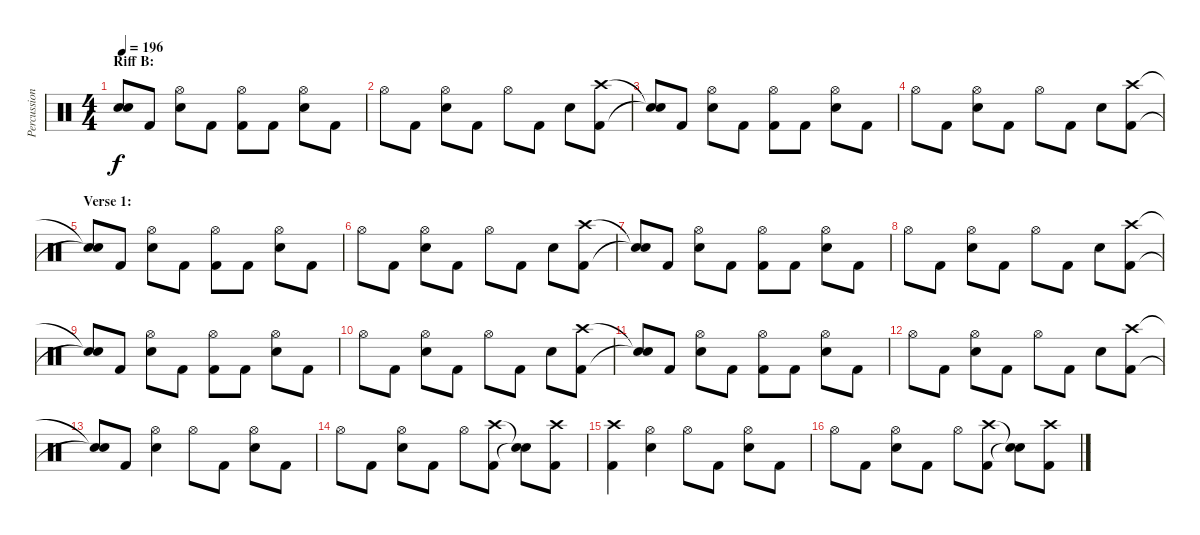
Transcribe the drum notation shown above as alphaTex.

\track ("Percussion" "Percussion") {instrument percussion}
\staff {score}
\articulation defaults
\ts (4 4)
\section ("" "Riff B:")
\tempo 196
\clef neutral
\ks c
("Snare (hit)"{t} "Snare (hit)"{t}).8{dy f} "Kick (hit) 2".8 ("Hi-Hat (open)" "Snare (hit) 2").8 "Kick (hit) 2".8 ("Hi-Hat (open)" "Kick (hit) 2").8 "Kick (hit) 2".8 ("Hi-Hat (open)" "Snare (hit) 2").8 "Kick (hit) 2".8 |
"Hi-Hat (open)".8 "Kick (hit) 2".8 ("Hi-Hat (open)" "Snare (hit) 2").8 "Kick (hit) 2".8 "Hi-Hat (open)".8 "Kick (hit) 2".8 "Snare (hit) 2".8 ("Crash high (hit)" "Kick (hit) 2").8 |
("Snare (hit)"{t} "Snare (hit)"{t}).8 "Kick (hit) 2".8 ("Hi-Hat (open)" "Snare (hit) 2").8 "Kick (hit) 2".8 ("Hi-Hat (open)" "Kick (hit) 2").8 "Kick (hit) 2".8 ("Hi-Hat (open)" "Snare (hit) 2").8 "Kick (hit) 2".8 |
"Hi-Hat (open)".8 "Kick (hit) 2".8 ("Hi-Hat (open)" "Snare (hit) 2").8 "Kick (hit) 2".8 "Hi-Hat (open)".8 "Kick (hit) 2".8 "Snare (hit) 2".8 ("Crash high (hit)" "Kick (hit) 2").8 |
\section ("" "Verse 1:")
("Snare (hit)"{t} "Snare (hit)"{t}).8 "Kick (hit) 2".8 ("Hi-Hat (open)" "Snare (hit) 2").8 "Kick (hit) 2".8 ("Hi-Hat (open)" "Kick (hit) 2").8 "Kick (hit) 2".8 ("Hi-Hat (open)" "Snare (hit) 2").8 "Kick (hit) 2".8 |
"Hi-Hat (open)".8 "Kick (hit) 2".8 ("Hi-Hat (open)" "Snare (hit) 2").8 "Kick (hit) 2".8 "Hi-Hat (open)".8 "Kick (hit) 2".8 "Snare (hit) 2".8 ("Crash high (hit)" "Kick (hit) 2").8 |
("Snare (hit)"{t} "Snare (hit)"{t}).8 "Kick (hit) 2".8 ("Hi-Hat (open)" "Snare (hit) 2").8 "Kick (hit) 2".8 ("Hi-Hat (open)" "Kick (hit) 2").8 "Kick (hit) 2".8 ("Hi-Hat (open)" "Snare (hit) 2").8 "Kick (hit) 2".8 |
"Hi-Hat (open)".8 "Kick (hit) 2".8 ("Hi-Hat (open)" "Snare (hit) 2").8 "Kick (hit) 2".8 "Hi-Hat (open)".8 "Kick (hit) 2".8 "Snare (hit) 2".8 ("Crash high (hit)" "Kick (hit) 2").8 |
("Snare (hit)"{t} "Snare (hit)"{t}).8 "Kick (hit) 2".8 ("Hi-Hat (open)" "Snare (hit) 2").8 "Kick (hit) 2".8 ("Hi-Hat (open)" "Kick (hit) 2").8 "Kick (hit) 2".8 ("Hi-Hat (open)" "Snare (hit) 2").8 "Kick (hit) 2".8 |
"Hi-Hat (open)".8 "Kick (hit) 2".8 ("Hi-Hat (open)" "Snare (hit) 2").8 "Kick (hit) 2".8 "Hi-Hat (open)".8 "Kick (hit) 2".8 "Snare (hit) 2".8 ("Crash high (hit)" "Kick (hit) 2").8 |
("Snare (hit)"{t} "Snare (hit)"{t}).8 "Kick (hit) 2".8 ("Hi-Hat (open)" "Snare (hit) 2").8 "Kick (hit) 2".8 ("Hi-Hat (open)" "Kick (hit) 2").8 "Kick (hit) 2".8 ("Hi-Hat (open)" "Snare (hit) 2").8 "Kick (hit) 2".8 |
"Hi-Hat (open)".8 "Kick (hit) 2".8 ("Hi-Hat (open)" "Snare (hit) 2").8 "Kick (hit) 2".8 "Hi-Hat (open)".8 "Kick (hit) 2".8 "Snare (hit) 2".8 ("Crash high (hit)" "Kick (hit) 2").8 |
("Snare (hit)"{t} "Snare (hit)"{t}).8 "Kick (hit) 2".8 ("Hi-Hat (open)" "Snare (hit) 2").4 "Hi-Hat (open)".8 "Kick (hit) 2".8 ("Hi-Hat (open)" "Snare (hit) 2").8 "Kick (hit) 2".8 |
"Hi-Hat (open)".8 "Kick (hit) 2".8 ("Hi-Hat (open)" "Snare (hit) 2").8 "Kick (hit) 2".8 "Hi-Hat (open)".8 ("Crash high (hit)" "Kick (hit) 2").8 ("Snare (hit)"{t} "Snare (hit)"{t}).8 ("Crash high (hit)" "Kick (hit) 2").8 |
("Crash high (hit)" "Kick (hit) 2").4 ("Hi-Hat (open)" "Snare (hit) 2").4 "Hi-Hat (open)".8 "Kick (hit) 2".8 ("Hi-Hat (open)" "Snare (hit) 2").8 "Kick (hit) 2".8 |
"Hi-Hat (open)".8 "Kick (hit) 2".8 ("Hi-Hat (open)" "Snare (hit) 2").8 "Kick (hit) 2".8 "Hi-Hat (open)".8 ("Crash high (hit)" "Kick (hit) 2").8 ("Snare (hit)"{t} "Snare (hit)"{t}).8 ("Crash high (hit)" "Kick (hit) 2").8
